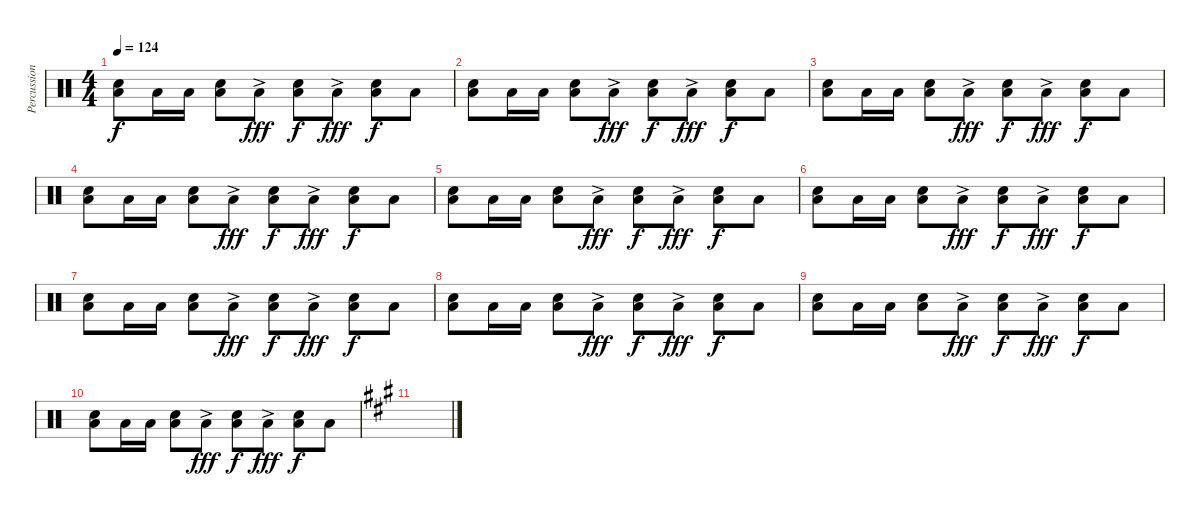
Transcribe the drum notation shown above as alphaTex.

\track ("Percussion" "Percussion") {instrument percussion}
\staff {score}
\articulation defaults
\ts (4 4)
\tempo 124
\clef neutral
\ks c
("Low Floor Tom (hit)" "Snare (hit) 2").8{dy f} "Low Floor Tom (hit)".16 "Low Floor Tom (hit)".16 ("Low Floor Tom (hit)" "Snare (hit) 2").8 "Low Floor Tom (hit)"{ac}.8{dy fff} ("Low Floor Tom (hit)" "Snare (hit) 2").8{dy f} "Low Floor Tom (hit)"{ac}.8{dy fff} ("Low Floor Tom (hit)" "Snare (hit) 2").8{dy f} "Low Floor Tom (hit)".8 |
("Low Floor Tom (hit)" "Snare (hit) 2").8 "Low Floor Tom (hit)".16 "Low Floor Tom (hit)".16 ("Low Floor Tom (hit)" "Snare (hit) 2").8 "Low Floor Tom (hit)"{ac}.8{dy fff} ("Low Floor Tom (hit)" "Snare (hit) 2").8{dy f} "Low Floor Tom (hit)"{ac}.8{dy fff} ("Low Floor Tom (hit)" "Snare (hit) 2").8{dy f} "Low Floor Tom (hit)".8 |
("Low Floor Tom (hit)" "Snare (hit) 2").8 "Low Floor Tom (hit)".16 "Low Floor Tom (hit)".16 ("Low Floor Tom (hit)" "Snare (hit) 2").8 "Low Floor Tom (hit)"{ac}.8{dy fff} ("Low Floor Tom (hit)" "Snare (hit) 2").8{dy f} "Low Floor Tom (hit)"{ac}.8{dy fff} ("Low Floor Tom (hit)" "Snare (hit) 2").8{dy f} "Low Floor Tom (hit)".8 |
("Low Floor Tom (hit)" "Snare (hit) 2").8 "Low Floor Tom (hit)".16 "Low Floor Tom (hit)".16 ("Low Floor Tom (hit)" "Snare (hit) 2").8 "Low Floor Tom (hit)"{ac}.8{dy fff} ("Low Floor Tom (hit)" "Snare (hit) 2").8{dy f} "Low Floor Tom (hit)"{ac}.8{dy fff} ("Low Floor Tom (hit)" "Snare (hit) 2").8{dy f} "Low Floor Tom (hit)".8 |
("Low Floor Tom (hit)" "Snare (hit) 2").8 "Low Floor Tom (hit)".16 "Low Floor Tom (hit)".16 ("Low Floor Tom (hit)" "Snare (hit) 2").8 "Low Floor Tom (hit)"{ac}.8{dy fff} ("Low Floor Tom (hit)" "Snare (hit) 2").8{dy f} "Low Floor Tom (hit)"{ac}.8{dy fff} ("Low Floor Tom (hit)" "Snare (hit) 2").8{dy f} "Low Floor Tom (hit)".8 |
("Low Floor Tom (hit)" "Snare (hit) 2").8 "Low Floor Tom (hit)".16 "Low Floor Tom (hit)".16 ("Low Floor Tom (hit)" "Snare (hit) 2").8 "Low Floor Tom (hit)"{ac}.8{dy fff} ("Low Floor Tom (hit)" "Snare (hit) 2").8{dy f} "Low Floor Tom (hit)"{ac}.8{dy fff} ("Low Floor Tom (hit)" "Snare (hit) 2").8{dy f} "Low Floor Tom (hit)".8 |
("Low Floor Tom (hit)" "Snare (hit) 2").8 "Low Floor Tom (hit)".16 "Low Floor Tom (hit)".16 ("Low Floor Tom (hit)" "Snare (hit) 2").8 "Low Floor Tom (hit)"{ac}.8{dy fff} ("Low Floor Tom (hit)" "Snare (hit) 2").8{dy f} "Low Floor Tom (hit)"{ac}.8{dy fff} ("Low Floor Tom (hit)" "Snare (hit) 2").8{dy f} "Low Floor Tom (hit)".8 |
("Low Floor Tom (hit)" "Snare (hit) 2").8 "Low Floor Tom (hit)".16 "Low Floor Tom (hit)".16 ("Low Floor Tom (hit)" "Snare (hit) 2").8 "Low Floor Tom (hit)"{ac}.8{dy fff} ("Low Floor Tom (hit)" "Snare (hit) 2").8{dy f} "Low Floor Tom (hit)"{ac}.8{dy fff} ("Low Floor Tom (hit)" "Snare (hit) 2").8{dy f} "Low Floor Tom (hit)".8 |
("Low Floor Tom (hit)" "Snare (hit) 2").8 "Low Floor Tom (hit)".16 "Low Floor Tom (hit)".16 ("Low Floor Tom (hit)" "Snare (hit) 2").8 "Low Floor Tom (hit)"{ac}.8{dy fff} ("Low Floor Tom (hit)" "Snare (hit) 2").8{dy f} "Low Floor Tom (hit)"{ac}.8{dy fff} ("Low Floor Tom (hit)" "Snare (hit) 2").8{dy f} "Low Floor Tom (hit)".8 |
("Low Floor Tom (hit)" "Snare (hit) 2").8 "Low Floor Tom (hit)".16 "Low Floor Tom (hit)".16 ("Low Floor Tom (hit)" "Snare (hit) 2").8 "Low Floor Tom (hit)"{ac}.8{dy fff} ("Low Floor Tom (hit)" "Snare (hit) 2").8{dy f} "Low Floor Tom (hit)"{ac}.8{dy fff} ("Low Floor Tom (hit)" "Snare (hit) 2").8{dy f} "Low Floor Tom (hit)".8 |
\ks a
